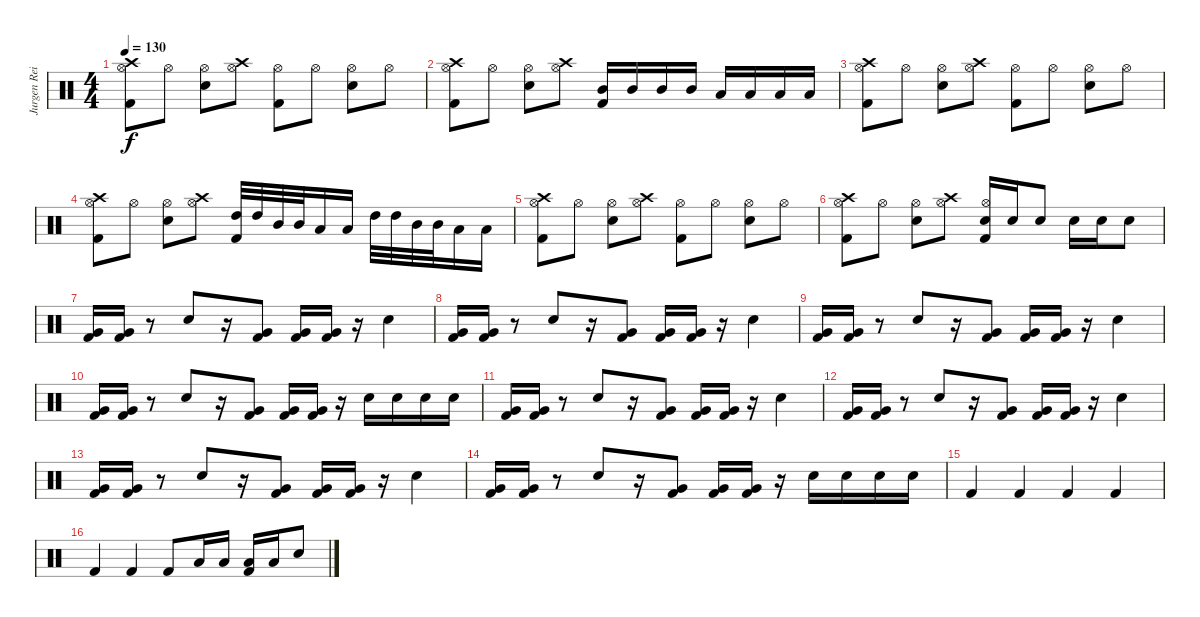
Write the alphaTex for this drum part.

\track ("Jurgen Reil" "Jurgen Rei") {instrument percussion}
\staff {score}
\articulation defaults
\ts (4 4)
\tempo 130
\clef neutral
\ks c
("Kick (hit) 2" "Crash high (hit)" "Hi-Hat (open)").8{dy f} "Hi-Hat (open)".8 ("Snare (hit) 2" "Hi-Hat (open)").8 ("Crash high (hit)" "Hi-Hat (open)").8 ("Kick (hit) 2" "Hi-Hat (open)").8 "Hi-Hat (open)".8 ("Snare (hit) 2" "Hi-Hat (open)").8 "Hi-Hat (open)".8 |
("Kick (hit) 2" "Crash high (hit)" "Hi-Hat (open)").8 "Hi-Hat (open)".8 ("Snare (hit) 2" "Hi-Hat (open)").8 ("Crash high (hit)" "Hi-Hat (open)").8 ("Kick (hit) 2" "Mid Tom (hit)").16 "Mid Tom (hit)".16 "Mid Tom (hit)".16 "Mid Tom (hit)".16 "Low Tom (hit)".16 "Low Tom (hit)".16 "Low Tom (hit)".16 "Low Tom (hit)".16 |
("Kick (hit) 2" "Crash high (hit)" "Hi-Hat (open)").8 "Hi-Hat (open)".8 ("Snare (hit) 2" "Hi-Hat (open)").8 ("Crash high (hit)" "Hi-Hat (open)").8 ("Kick (hit) 2" "Hi-Hat (open)").8 "Hi-Hat (open)".8 ("Snare (hit) 2" "Hi-Hat (open)").8 "Hi-Hat (open)".8 |
("Kick (hit) 2" "Crash high (hit)" "Hi-Hat (open)").8 "Hi-Hat (open)".8 ("Snare (hit) 2" "Hi-Hat (open)").8 ("Crash high (hit)" "Hi-Hat (open)").8 ("Kick (hit) 2" "High Tom (hit)").32 "High Tom (hit)".32 "Mid Tom (hit)".32 "Mid Tom (hit)".32 "Low Tom (hit)".16 "Low Tom (hit)".16 "High Tom (hit)".32 "High Tom (hit)".32 "Mid Tom (hit)".32 "Mid Tom (hit)".32 "Low Tom (hit)".16 "Low Tom (hit)".16 |
("Kick (hit) 2" "Crash high (hit)" "Hi-Hat (open)").8 "Hi-Hat (open)".8 ("Snare (hit) 2" "Hi-Hat (open)").8 ("Crash high (hit)" "Hi-Hat (open)").8 ("Kick (hit) 2" "Hi-Hat (open)").8 "Hi-Hat (open)".8 ("Snare (hit) 2" "Hi-Hat (open)").8 "Hi-Hat (open)".8 |
("Kick (hit) 2" "Crash high (hit)" "Hi-Hat (open)").8 "Hi-Hat (open)".8 ("Snare (hit) 2" "Hi-Hat (open)").8 ("Crash high (hit)" "Hi-Hat (open)").8 ("Kick (hit) 2" "Snare (hit) 2" "Hi-Hat (open)").16 "Snare (hit) 2".16 "Snare (hit) 2".8 "Snare (hit) 2".16 "Snare (hit) 2".16 "Snare (hit) 2".8 |
("Kick (hit) 2" "Very Low Tom (hit)").16 ("Kick (hit) 2" "Very Low Tom (hit)").16 r.8 "Snare (hit) 2".8 r.16 ("Kick (hit) 2" "Very Low Tom (hit)").8 ("Kick (hit) 2" "Very Low Tom (hit)").16 ("Kick (hit) 2" "Very Low Tom (hit)").16 r.16 "Snare (hit) 2".4 |
("Kick (hit) 2" "Very Low Tom (hit)").16 ("Kick (hit) 2" "Very Low Tom (hit)").16 r.8 "Snare (hit) 2".8 r.16 ("Kick (hit) 2" "Very Low Tom (hit)").8 ("Kick (hit) 2" "Very Low Tom (hit)").16 ("Kick (hit) 2" "Very Low Tom (hit)").16 r.16 "Snare (hit) 2".4 |
("Kick (hit) 2" "Very Low Tom (hit)").16 ("Kick (hit) 2" "Very Low Tom (hit)").16 r.8 "Snare (hit) 2".8 r.16 ("Kick (hit) 2" "Very Low Tom (hit)").8 ("Kick (hit) 2" "Very Low Tom (hit)").16 ("Kick (hit) 2" "Very Low Tom (hit)").16 r.16 "Snare (hit) 2".4 |
("Kick (hit) 2" "Very Low Tom (hit)").16 ("Kick (hit) 2" "Very Low Tom (hit)").16 r.8 "Snare (hit) 2".8 r.16 ("Kick (hit) 2" "Very Low Tom (hit)").8 ("Kick (hit) 2" "Very Low Tom (hit)").16 ("Kick (hit) 2" "Very Low Tom (hit)").16 r.16 "Snare (hit) 2".16 "Snare (hit) 2".16 "Snare (hit) 2".16 "Snare (hit) 2".16 |
("Kick (hit) 2" "Very Low Tom (hit)").16 ("Kick (hit) 2" "Very Low Tom (hit)").16 r.8 "Snare (hit) 2".8 r.16 ("Kick (hit) 2" "Very Low Tom (hit)").8 ("Kick (hit) 2" "Very Low Tom (hit)").16 ("Kick (hit) 2" "Very Low Tom (hit)").16 r.16 "Snare (hit) 2".4 |
("Kick (hit) 2" "Very Low Tom (hit)").16 ("Kick (hit) 2" "Very Low Tom (hit)").16 r.8 "Snare (hit) 2".8 r.16 ("Kick (hit) 2" "Very Low Tom (hit)").8 ("Kick (hit) 2" "Very Low Tom (hit)").16 ("Kick (hit) 2" "Very Low Tom (hit)").16 r.16 "Snare (hit) 2".4 |
("Kick (hit) 2" "Very Low Tom (hit)").16 ("Kick (hit) 2" "Very Low Tom (hit)").16 r.8 "Snare (hit) 2".8 r.16 ("Kick (hit) 2" "Very Low Tom (hit)").8 ("Kick (hit) 2" "Very Low Tom (hit)").16 ("Kick (hit) 2" "Very Low Tom (hit)").16 r.16 "Snare (hit) 2".4 |
("Kick (hit) 2" "Very Low Tom (hit)").16 ("Kick (hit) 2" "Very Low Tom (hit)").16 r.8 "Snare (hit) 2".8 r.16 ("Kick (hit) 2" "Very Low Tom (hit)").8 ("Kick (hit) 2" "Very Low Tom (hit)").16 ("Kick (hit) 2" "Very Low Tom (hit)").16 r.16 "Snare (hit) 2".16 "Snare (hit) 2".16 "Snare (hit) 2".16 "Snare (hit) 2".16 |
"Kick (hit) 2".4 "Kick (hit) 2".4 "Kick (hit) 2".4 "Kick (hit) 2".4 |
"Kick (hit) 2".4 "Kick (hit) 2".4 "Kick (hit) 2".8 "Low Floor Tom (hit)".16 "Low Floor Tom (hit)".16 ("Kick (hit) 2" "Low Tom (hit)").16 "Low Tom (hit)".16 "Snare (hit) 2".8
